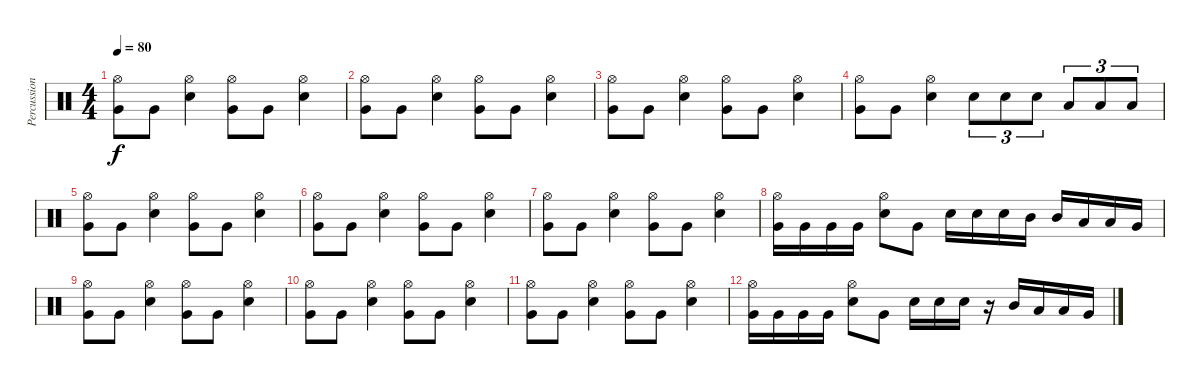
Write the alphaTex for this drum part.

\track ("Percussion" "Percussion") {instrument percussion}
\staff {score}
\articulation defaults
\ts (4 4)
\tempo 80
\clef neutral
\ks c
("Hi-Hat (open)" "Very Low Tom (hit)").8{dy f} "Very Low Tom (hit)".8 ("Hi-Hat (open)" "Snare (hit) 2").4 ("Hi-Hat (open)" "Very Low Tom (hit)").8 "Very Low Tom (hit)".8 ("Hi-Hat (open)" "Snare (hit) 2").4 |
("Hi-Hat (open)" "Very Low Tom (hit)").8 "Very Low Tom (hit)".8 ("Hi-Hat (open)" "Snare (hit) 2").4 ("Hi-Hat (open)" "Very Low Tom (hit)").8 "Very Low Tom (hit)".8 ("Hi-Hat (open)" "Snare (hit) 2").4 |
("Hi-Hat (open)" "Very Low Tom (hit)").8 "Very Low Tom (hit)".8 ("Hi-Hat (open)" "Snare (hit) 2").4 ("Hi-Hat (open)" "Very Low Tom (hit)").8 "Very Low Tom (hit)".8 ("Hi-Hat (open)" "Snare (hit) 2").4 |
("Hi-Hat (open)" "Very Low Tom (hit)").8 "Very Low Tom (hit)".8 ("Hi-Hat (open)" "Snare (hit) 2").4 "Snare (hit) 2".8{tu (3 2)} "Snare (hit) 2".8{tu (3 2)} "Snare (hit) 2".8{tu (3 2)} "Low Tom (hit)".8{tu (3 2)} "Low Tom (hit)".8{tu (3 2)} "Low Tom (hit)".8{tu (3 2)} |
("Hi-Hat (open)" "Very Low Tom (hit)").8 "Very Low Tom (hit)".8 ("Hi-Hat (open)" "Snare (hit) 2").4 ("Hi-Hat (open)" "Very Low Tom (hit)").8 "Very Low Tom (hit)".8 ("Hi-Hat (open)" "Snare (hit) 2").4 |
("Hi-Hat (open)" "Very Low Tom (hit)").8 "Very Low Tom (hit)".8 ("Hi-Hat (open)" "Snare (hit) 2").4 ("Hi-Hat (open)" "Very Low Tom (hit)").8 "Very Low Tom (hit)".8 ("Hi-Hat (open)" "Snare (hit) 2").4 |
("Hi-Hat (open)" "Very Low Tom (hit)").8 "Very Low Tom (hit)".8 ("Hi-Hat (open)" "Snare (hit) 2").4 ("Hi-Hat (open)" "Very Low Tom (hit)").8 "Very Low Tom (hit)".8 ("Hi-Hat (open)" "Snare (hit) 2").4 |
("Hi-Hat (open)" "Very Low Tom (hit)").16 "Very Low Tom (hit)".16 "Very Low Tom (hit)".16 "Very Low Tom (hit)".16 ("Hi-Hat (open)" "Snare (hit) 2").8 "Very Low Tom (hit)".8 "Snare (hit) 2".16 "Snare (hit) 2".16 "Snare (hit) 2".16 "Mid Tom (hit)".16 "Mid Tom (hit)".16 "Low Tom (hit)".16 "Low Tom (hit)".16 "Very Low Tom (hit)".16 |
("Hi-Hat (open)" "Very Low Tom (hit)").8 "Very Low Tom (hit)".8 ("Hi-Hat (open)" "Snare (hit) 2").4 ("Hi-Hat (open)" "Very Low Tom (hit)").8 "Very Low Tom (hit)".8 ("Hi-Hat (open)" "Snare (hit) 2").4 |
("Hi-Hat (open)" "Very Low Tom (hit)").8 "Very Low Tom (hit)".8 ("Hi-Hat (open)" "Snare (hit) 2").4 ("Hi-Hat (open)" "Very Low Tom (hit)").8 "Very Low Tom (hit)".8 ("Hi-Hat (open)" "Snare (hit) 2").4 |
("Hi-Hat (open)" "Very Low Tom (hit)").8 "Very Low Tom (hit)".8 ("Hi-Hat (open)" "Snare (hit) 2").4 ("Hi-Hat (open)" "Very Low Tom (hit)").8 "Very Low Tom (hit)".8 ("Hi-Hat (open)" "Snare (hit) 2").4 |
("Hi-Hat (open)" "Very Low Tom (hit)").16 "Very Low Tom (hit)".16 "Very Low Tom (hit)".16 "Very Low Tom (hit)".16 ("Hi-Hat (open)" "Snare (hit) 2").8 "Very Low Tom (hit)".8 "Snare (hit) 2".16 "Snare (hit) 2".16 "Snare (hit) 2".16 r.16 "Mid Tom (hit)".16 "Low Tom (hit)".16 "Low Tom (hit)".16 "Very Low Tom (hit)".16
